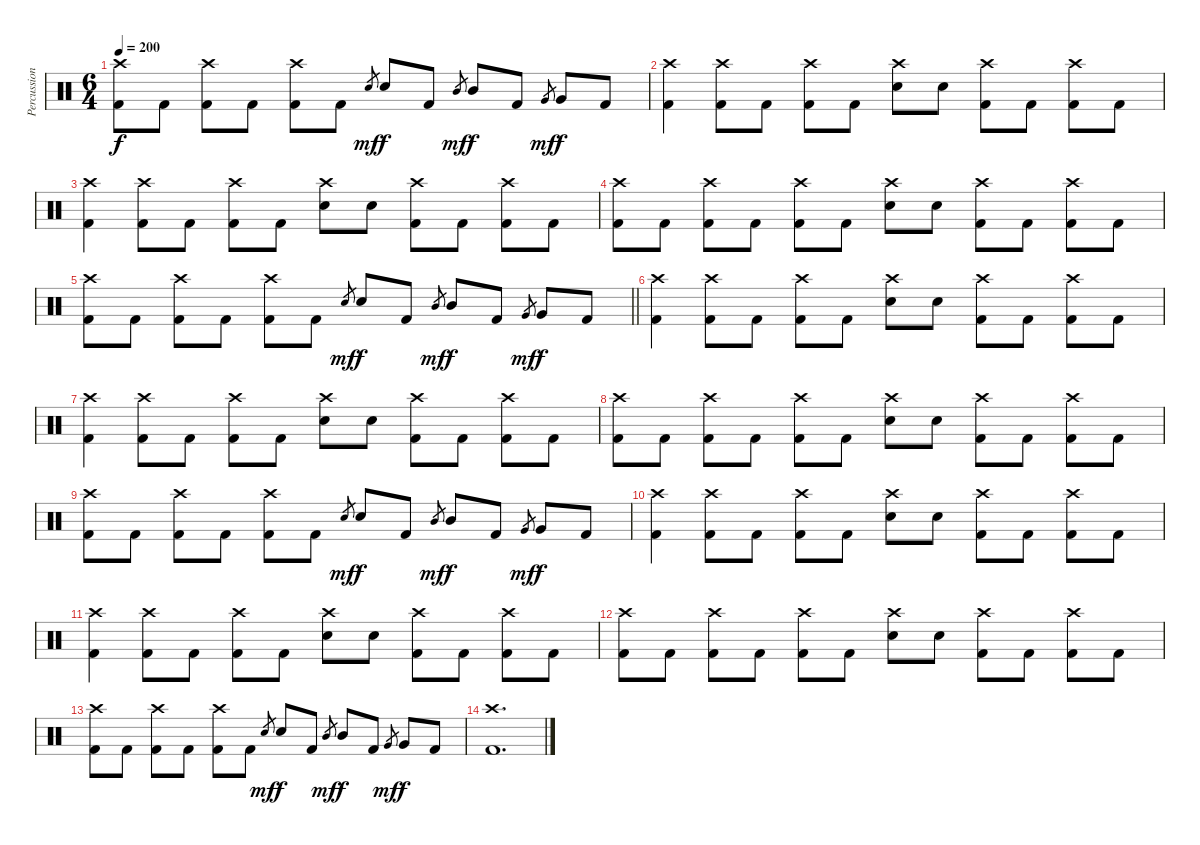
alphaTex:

\track ("Percussion" "Percussion") {instrument percussion}
\staff {score}
\articulation defaults
\ts (6 4)
\tempo 200
\clef neutral
\ks c
("Crash high (hit)" "Kick (hit) 2").8{dy f} "Kick (hit) 2".8 ("Crash high (hit)" "Kick (hit) 2").8 "Kick (hit) 2".8 ("Crash high (hit)" "Kick (hit) 2").8 "Kick (hit) 2".8 "Electric Snare (hit)".8{gr dy mf} "Electric Snare (hit)".8{dy f} "Kick (hit) 2".8 "Mid Tom (hit)".8{gr dy mf} "Mid Tom (hit)".8{dy f} "Kick (hit) 2".8 "Very Low Tom (hit)".8{gr dy mf} "Very Low Tom (hit)".8{dy f} "Kick (hit) 2".8 |
("Crash high (hit)" "Kick (hit) 2").4 ("Crash high (hit)" "Kick (hit) 2").8 "Kick (hit) 2".8 ("Crash high (hit)" "Kick (hit) 2").8 "Kick (hit) 2".8 ("Crash high (hit)" "Electric Snare (hit)").8 "Electric Snare (hit)".8 ("Crash high (hit)" "Kick (hit) 2").8 "Kick (hit) 2".8 ("Crash high (hit)" "Kick (hit) 2").8 "Kick (hit) 2".8 |
("Crash high (hit)" "Kick (hit) 2").4 ("Crash high (hit)" "Kick (hit) 2").8 "Kick (hit) 2".8 ("Crash high (hit)" "Kick (hit) 2").8 "Kick (hit) 2".8 ("Crash high (hit)" "Electric Snare (hit)").8 "Electric Snare (hit)".8 ("Crash high (hit)" "Kick (hit) 2").8 "Kick (hit) 2".8 ("Crash high (hit)" "Kick (hit) 2").8 "Kick (hit) 2".8 |
("Crash high (hit)" "Kick (hit) 2").8 "Kick (hit) 2".8 ("Crash high (hit)" "Kick (hit) 2").8 "Kick (hit) 2".8 ("Crash high (hit)" "Kick (hit) 2").8 "Kick (hit) 2".8 ("Crash high (hit)" "Electric Snare (hit)").8 "Electric Snare (hit)".8 ("Crash high (hit)" "Kick (hit) 2").8 "Kick (hit) 2".8 ("Crash high (hit)" "Kick (hit) 2").8 "Kick (hit) 2".8 |
\barLineRight lightlight
("Crash high (hit)" "Kick (hit) 2").8 "Kick (hit) 2".8 ("Crash high (hit)" "Kick (hit) 2").8 "Kick (hit) 2".8 ("Crash high (hit)" "Kick (hit) 2").8 "Kick (hit) 2".8 "Electric Snare (hit)".8{gr dy mf} "Electric Snare (hit)".8{dy f} "Kick (hit) 2".8 "Mid Tom (hit)".8{gr dy mf} "Mid Tom (hit)".8{dy f} "Kick (hit) 2".8 "Very Low Tom (hit)".8{gr dy mf} "Very Low Tom (hit)".8{dy f} "Kick (hit) 2".8 |
("Crash high (hit)" "Kick (hit) 2").4 ("Crash high (hit)" "Kick (hit) 2").8 "Kick (hit) 2".8 ("Crash high (hit)" "Kick (hit) 2").8 "Kick (hit) 2".8 ("Crash high (hit)" "Electric Snare (hit)").8 "Electric Snare (hit)".8 ("Crash high (hit)" "Kick (hit) 2").8 "Kick (hit) 2".8 ("Crash high (hit)" "Kick (hit) 2").8 "Kick (hit) 2".8 |
("Crash high (hit)" "Kick (hit) 2").4 ("Crash high (hit)" "Kick (hit) 2").8 "Kick (hit) 2".8 ("Crash high (hit)" "Kick (hit) 2").8 "Kick (hit) 2".8 ("Crash high (hit)" "Electric Snare (hit)").8 "Electric Snare (hit)".8 ("Crash high (hit)" "Kick (hit) 2").8 "Kick (hit) 2".8 ("Crash high (hit)" "Kick (hit) 2").8 "Kick (hit) 2".8 |
("Crash high (hit)" "Kick (hit) 2").8 "Kick (hit) 2".8 ("Crash high (hit)" "Kick (hit) 2").8 "Kick (hit) 2".8 ("Crash high (hit)" "Kick (hit) 2").8 "Kick (hit) 2".8 ("Crash high (hit)" "Electric Snare (hit)").8 "Electric Snare (hit)".8 ("Crash high (hit)" "Kick (hit) 2").8 "Kick (hit) 2".8 ("Crash high (hit)" "Kick (hit) 2").8 "Kick (hit) 2".8 |
("Crash high (hit)" "Kick (hit) 2").8 "Kick (hit) 2".8 ("Crash high (hit)" "Kick (hit) 2").8 "Kick (hit) 2".8 ("Crash high (hit)" "Kick (hit) 2").8 "Kick (hit) 2".8 "Electric Snare (hit)".8{gr dy mf} "Electric Snare (hit)".8{dy f} "Kick (hit) 2".8 "Mid Tom (hit)".8{gr dy mf} "Mid Tom (hit)".8{dy f} "Kick (hit) 2".8 "Very Low Tom (hit)".8{gr dy mf} "Very Low Tom (hit)".8{dy f} "Kick (hit) 2".8 |
("Crash high (hit)" "Kick (hit) 2").4 ("Crash high (hit)" "Kick (hit) 2").8 "Kick (hit) 2".8 ("Crash high (hit)" "Kick (hit) 2").8 "Kick (hit) 2".8 ("Crash high (hit)" "Electric Snare (hit)").8 "Electric Snare (hit)".8 ("Crash high (hit)" "Kick (hit) 2").8 "Kick (hit) 2".8 ("Crash high (hit)" "Kick (hit) 2").8 "Kick (hit) 2".8 |
("Crash high (hit)" "Kick (hit) 2").4 ("Crash high (hit)" "Kick (hit) 2").8 "Kick (hit) 2".8 ("Crash high (hit)" "Kick (hit) 2").8 "Kick (hit) 2".8 ("Crash high (hit)" "Electric Snare (hit)").8 "Electric Snare (hit)".8 ("Crash high (hit)" "Kick (hit) 2").8 "Kick (hit) 2".8 ("Crash high (hit)" "Kick (hit) 2").8 "Kick (hit) 2".8 |
("Crash high (hit)" "Kick (hit) 2").8 "Kick (hit) 2".8 ("Crash high (hit)" "Kick (hit) 2").8 "Kick (hit) 2".8 ("Crash high (hit)" "Kick (hit) 2").8 "Kick (hit) 2".8 ("Crash high (hit)" "Electric Snare (hit)").8 "Electric Snare (hit)".8 ("Crash high (hit)" "Kick (hit) 2").8 "Kick (hit) 2".8 ("Crash high (hit)" "Kick (hit) 2").8 "Kick (hit) 2".8 |
("Crash high (hit)" "Kick (hit) 2").8 "Kick (hit) 2".8 ("Crash high (hit)" "Kick (hit) 2").8 "Kick (hit) 2".8 ("Crash high (hit)" "Kick (hit) 2").8 "Kick (hit) 2".8 "Electric Snare (hit)".8{gr dy mf} "Electric Snare (hit)".8{dy f} "Kick (hit) 2".8 "Mid Tom (hit)".8{gr dy mf} "Mid Tom (hit)".8{dy f} "Kick (hit) 2".8 "Very Low Tom (hit)".8{gr dy mf} "Very Low Tom (hit)".8{dy f} "Kick (hit) 2".8 |
("Crash high (hit)" "Kick (hit) 2").1{d}
